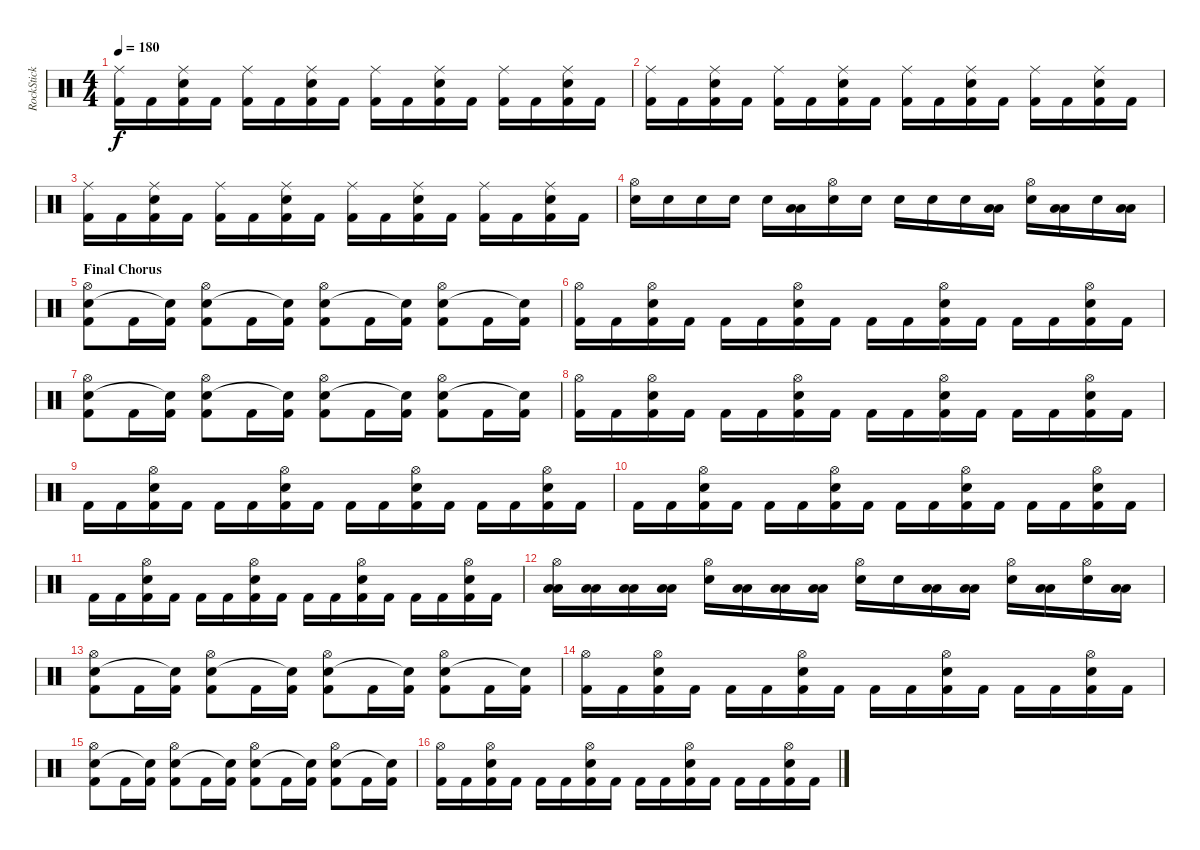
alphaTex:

\track ("RockStick" "RockStick") {instrument percussion}
\staff {score}
\articulation defaults
\ts (4 4)
\tempo 180
\clef neutral
\ks c
("Kick (hit) 2" "Ride (middle)").16{dy f} "Kick (hit) 2".16 ("Electric Snare (hit)" "Kick (hit) 2" "Ride (middle)").16 "Kick (hit) 2".16 ("Kick (hit) 2" "Ride (middle)").16 "Kick (hit) 2".16 ("Electric Snare (hit)" "Kick (hit) 2" "Ride (middle)").16 "Kick (hit) 2".16 ("Kick (hit) 2" "Ride (middle)").16 "Kick (hit) 2".16 ("Electric Snare (hit)" "Kick (hit) 2" "Ride (middle)").16 "Kick (hit) 2".16 ("Kick (hit) 2" "Ride (middle)").16 "Kick (hit) 2".16 ("Electric Snare (hit)" "Kick (hit) 2" "Ride (middle)").16 "Kick (hit) 2".16 |
("Kick (hit) 2" "Ride (middle)").16 "Kick (hit) 2".16 ("Electric Snare (hit)" "Kick (hit) 2" "Ride (middle)").16 "Kick (hit) 2".16 ("Kick (hit) 2" "Ride (middle)").16 "Kick (hit) 2".16 ("Electric Snare (hit)" "Kick (hit) 2" "Ride (middle)").16 "Kick (hit) 2".16 ("Kick (hit) 2" "Ride (middle)").16 "Kick (hit) 2".16 ("Electric Snare (hit)" "Kick (hit) 2" "Ride (middle)").16 "Kick (hit) 2".16 ("Kick (hit) 2" "Ride (middle)").16 "Kick (hit) 2".16 ("Electric Snare (hit)" "Kick (hit) 2" "Ride (middle)").16 "Kick (hit) 2".16 |
("Kick (hit) 2" "Ride (middle)").16 "Kick (hit) 2".16 ("Electric Snare (hit)" "Kick (hit) 2" "Ride (middle)").16 "Kick (hit) 2".16 ("Kick (hit) 2" "Ride (middle)").16 "Kick (hit) 2".16 ("Electric Snare (hit)" "Kick (hit) 2" "Ride (middle)").16 "Kick (hit) 2".16 ("Kick (hit) 2" "Ride (middle)").16 "Kick (hit) 2".16 ("Electric Snare (hit)" "Kick (hit) 2" "Ride (middle)").16 "Kick (hit) 2".16 ("Kick (hit) 2" "Ride (middle)").16 "Kick (hit) 2".16 ("Electric Snare (hit)" "Kick (hit) 2" "Ride (middle)").16 "Kick (hit) 2".16 |
("Electric Snare (hit)" "Hi-Hat (open)").16 "Electric Snare (hit)".16 "Electric Snare (hit)".16 "Electric Snare (hit)".16 "Electric Snare (hit)".16 ("Low Tom (hit)" "Low Tom (hit)").16 ("Electric Snare (hit)" "Hi-Hat (open)").16 "Electric Snare (hit)".16 "Electric Snare (hit)".16 "Electric Snare (hit)".16 "Electric Snare (hit)".16 ("Low Tom (hit)" "Low Tom (hit)").16 ("Electric Snare (hit)" "Hi-Hat (open)").16 ("Low Tom (hit)" "Low Tom (hit)").16 "Electric Snare (hit)".16 ("Low Tom (hit)" "Low Tom (hit)").16 |
\section ("" "Final Chorus")
("Kick (hit) 2" "Electric Snare (hit)" "Hi-Hat (open)").8 "Kick (hit) 2".16 ("Kick (hit) 2" "Snare (hit)"{t}).16 ("Kick (hit) 2" "Electric Snare (hit)" "Hi-Hat (open)").8 "Kick (hit) 2".16 ("Kick (hit) 2" "Snare (hit)"{t}).16 ("Kick (hit) 2" "Electric Snare (hit)" "Hi-Hat (open)").8 "Kick (hit) 2".16 ("Kick (hit) 2" "Snare (hit)"{t}).16 ("Kick (hit) 2" "Electric Snare (hit)" "Hi-Hat (open)").8 "Kick (hit) 2".16 ("Kick (hit) 2" "Snare (hit)"{t}).16 |
("Kick (hit) 2" "Hi-Hat (open)").16 "Kick (hit) 2".16 ("Electric Snare (hit)" "Kick (hit) 2" "Hi-Hat (open)").16 "Kick (hit) 2".16 "Kick (hit) 2".16 "Kick (hit) 2".16 ("Electric Snare (hit)" "Kick (hit) 2" "Hi-Hat (open)").16 "Kick (hit) 2".16 "Kick (hit) 2".16 "Kick (hit) 2".16 ("Electric Snare (hit)" "Kick (hit) 2" "Hi-Hat (open)").16 "Kick (hit) 2".16 "Kick (hit) 2".16 "Kick (hit) 2".16 ("Electric Snare (hit)" "Kick (hit) 2" "Hi-Hat (open)").16 "Kick (hit) 2".16 |
("Kick (hit) 2" "Electric Snare (hit)" "Hi-Hat (open)").8 "Kick (hit) 2".16 ("Kick (hit) 2" "Snare (hit)"{t}).16 ("Kick (hit) 2" "Electric Snare (hit)" "Hi-Hat (open)").8 "Kick (hit) 2".16 ("Kick (hit) 2" "Snare (hit)"{t}).16 ("Kick (hit) 2" "Electric Snare (hit)" "Hi-Hat (open)").8 "Kick (hit) 2".16 ("Kick (hit) 2" "Snare (hit)"{t}).16 ("Kick (hit) 2" "Electric Snare (hit)" "Hi-Hat (open)").8 "Kick (hit) 2".16 ("Kick (hit) 2" "Snare (hit)"{t}).16 |
("Kick (hit) 2" "Hi-Hat (open)").16 "Kick (hit) 2".16 ("Electric Snare (hit)" "Kick (hit) 2" "Hi-Hat (open)").16 "Kick (hit) 2".16 "Kick (hit) 2".16 "Kick (hit) 2".16 ("Electric Snare (hit)" "Kick (hit) 2" "Hi-Hat (open)").16 "Kick (hit) 2".16 "Kick (hit) 2".16 "Kick (hit) 2".16 ("Electric Snare (hit)" "Kick (hit) 2" "Hi-Hat (open)").16 "Kick (hit) 2".16 "Kick (hit) 2".16 "Kick (hit) 2".16 ("Electric Snare (hit)" "Kick (hit) 2" "Hi-Hat (open)").16 "Kick (hit) 2".16 |
"Kick (hit) 2".16 "Kick (hit) 2".16 ("Electric Snare (hit)" "Kick (hit) 2" "Hi-Hat (open)").16 "Kick (hit) 2".16 "Kick (hit) 2".16 "Kick (hit) 2".16 ("Electric Snare (hit)" "Kick (hit) 2" "Hi-Hat (open)").16 "Kick (hit) 2".16 "Kick (hit) 2".16 "Kick (hit) 2".16 ("Electric Snare (hit)" "Kick (hit) 2" "Hi-Hat (open)").16 "Kick (hit) 2".16 "Kick (hit) 2".16 "Kick (hit) 2".16 ("Electric Snare (hit)" "Kick (hit) 2" "Hi-Hat (open)").16 "Kick (hit) 2".16 |
"Kick (hit) 2".16 "Kick (hit) 2".16 ("Electric Snare (hit)" "Kick (hit) 2" "Hi-Hat (open)").16 "Kick (hit) 2".16 "Kick (hit) 2".16 "Kick (hit) 2".16 ("Electric Snare (hit)" "Kick (hit) 2" "Hi-Hat (open)").16 "Kick (hit) 2".16 "Kick (hit) 2".16 "Kick (hit) 2".16 ("Electric Snare (hit)" "Kick (hit) 2" "Hi-Hat (open)").16 "Kick (hit) 2".16 "Kick (hit) 2".16 "Kick (hit) 2".16 ("Electric Snare (hit)" "Kick (hit) 2" "Hi-Hat (open)").16 "Kick (hit) 2".16 |
"Kick (hit) 2".16 "Kick (hit) 2".16 ("Electric Snare (hit)" "Kick (hit) 2" "Hi-Hat (open)").16 "Kick (hit) 2".16 "Kick (hit) 2".16 "Kick (hit) 2".16 ("Electric Snare (hit)" "Kick (hit) 2" "Hi-Hat (open)").16 "Kick (hit) 2".16 "Kick (hit) 2".16 "Kick (hit) 2".16 ("Electric Snare (hit)" "Kick (hit) 2" "Hi-Hat (open)").16 "Kick (hit) 2".16 "Kick (hit) 2".16 "Kick (hit) 2".16 ("Electric Snare (hit)" "Kick (hit) 2" "Hi-Hat (open)").16 "Kick (hit) 2".16 |
("Low Tom (hit)" "Low Tom (hit)" "Hi-Hat (open)").16 ("Low Tom (hit)" "Low Tom (hit)").16 ("Low Tom (hit)" "Low Tom (hit)").16 ("Low Tom (hit)" "Low Tom (hit)").16 ("Electric Snare (hit)" "Hi-Hat (open)").16 ("Low Tom (hit)" "Low Tom (hit)").16 ("Low Tom (hit)" "Low Tom (hit)").16 ("Low Tom (hit)" "Low Tom (hit)").16 ("Electric Snare (hit)" "Hi-Hat (open)").16 "Electric Snare (hit)".16 ("Low Tom (hit)" "Low Tom (hit)").16 ("Low Tom (hit)" "Low Tom (hit)").16 ("Electric Snare (hit)" "Hi-Hat (open)").16 ("Low Tom (hit)" "Low Tom (hit)").16 ("Electric Snare (hit)" "Hi-Hat (open)").16 ("Low Tom (hit)" "Low Tom (hit)").16 |
("Kick (hit) 2" "Electric Snare (hit)" "Hi-Hat (open)").8 "Kick (hit) 2".16 ("Kick (hit) 2" "Snare (hit)"{t}).16 ("Kick (hit) 2" "Electric Snare (hit)" "Hi-Hat (open)").8 "Kick (hit) 2".16 ("Kick (hit) 2" "Snare (hit)"{t}).16 ("Kick (hit) 2" "Electric Snare (hit)" "Hi-Hat (open)").8 "Kick (hit) 2".16 ("Kick (hit) 2" "Snare (hit)"{t}).16 ("Kick (hit) 2" "Electric Snare (hit)" "Hi-Hat (open)").8 "Kick (hit) 2".16 ("Kick (hit) 2" "Snare (hit)"{t}).16 |
("Kick (hit) 2" "Hi-Hat (open)").16 "Kick (hit) 2".16 ("Electric Snare (hit)" "Kick (hit) 2" "Hi-Hat (open)").16 "Kick (hit) 2".16 "Kick (hit) 2".16 "Kick (hit) 2".16 ("Electric Snare (hit)" "Kick (hit) 2" "Hi-Hat (open)").16 "Kick (hit) 2".16 "Kick (hit) 2".16 "Kick (hit) 2".16 ("Electric Snare (hit)" "Kick (hit) 2" "Hi-Hat (open)").16 "Kick (hit) 2".16 "Kick (hit) 2".16 "Kick (hit) 2".16 ("Electric Snare (hit)" "Kick (hit) 2" "Hi-Hat (open)").16 "Kick (hit) 2".16 |
("Kick (hit) 2" "Electric Snare (hit)" "Hi-Hat (open)").8 "Kick (hit) 2".16 ("Kick (hit) 2" "Snare (hit)"{t}).16 ("Kick (hit) 2" "Electric Snare (hit)" "Hi-Hat (open)").8 "Kick (hit) 2".16 ("Kick (hit) 2" "Snare (hit)"{t}).16 ("Kick (hit) 2" "Electric Snare (hit)" "Hi-Hat (open)").8 "Kick (hit) 2".16 ("Kick (hit) 2" "Snare (hit)"{t}).16 ("Kick (hit) 2" "Electric Snare (hit)" "Hi-Hat (open)").8 "Kick (hit) 2".16 ("Kick (hit) 2" "Snare (hit)"{t}).16 |
("Kick (hit) 2" "Hi-Hat (open)").16 "Kick (hit) 2".16 ("Electric Snare (hit)" "Kick (hit) 2" "Hi-Hat (open)").16 "Kick (hit) 2".16 "Kick (hit) 2".16 "Kick (hit) 2".16 ("Electric Snare (hit)" "Kick (hit) 2" "Hi-Hat (open)").16 "Kick (hit) 2".16 "Kick (hit) 2".16 "Kick (hit) 2".16 ("Electric Snare (hit)" "Kick (hit) 2" "Hi-Hat (open)").16 "Kick (hit) 2".16 "Kick (hit) 2".16 "Kick (hit) 2".16 ("Electric Snare (hit)" "Kick (hit) 2" "Hi-Hat (open)").16 "Kick (hit) 2".16
